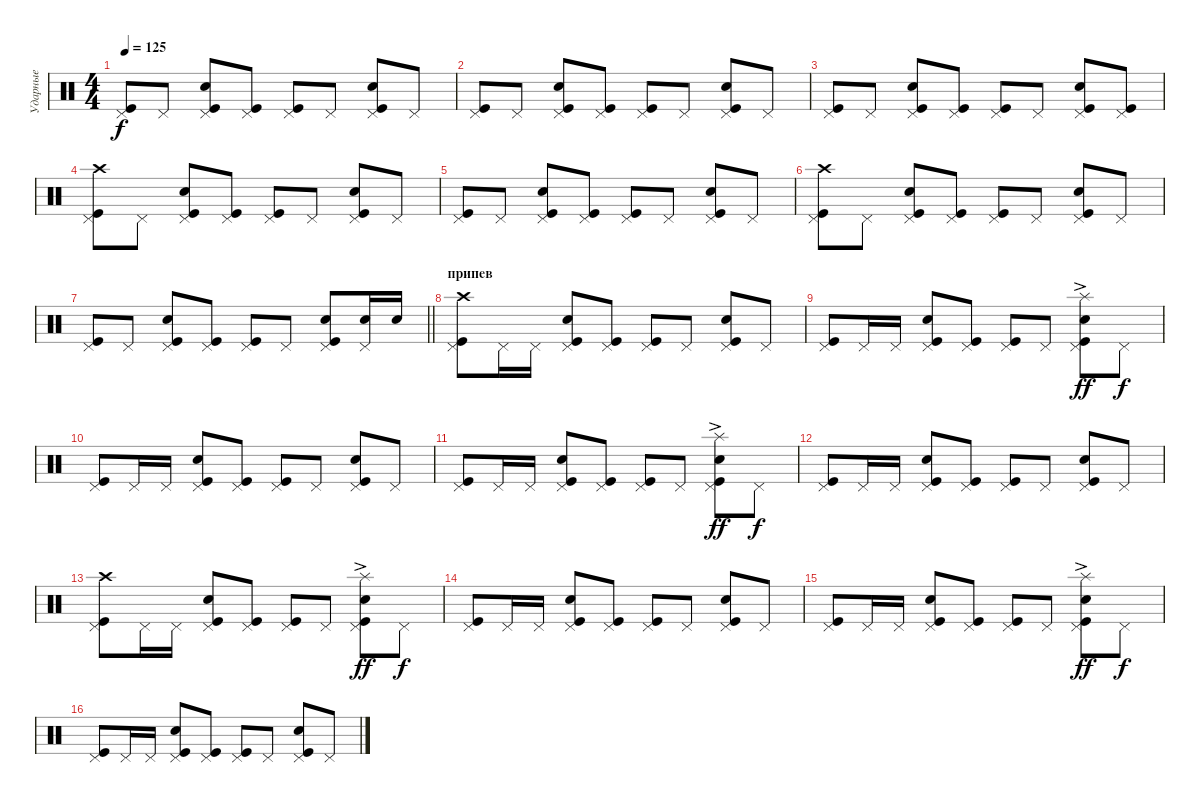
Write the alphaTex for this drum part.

\track ("Ударные" "Ударные") {instrument percussion}
\staff {score}
\articulation defaults
\ts (4 4)
\tempo 125
\clef neutral
\ks c
("Pedal Hi-Hat (hit)" "Kick (hit)").8{dy f} "Pedal Hi-Hat (hit)".8 ("Pedal Hi-Hat (hit)" "Kick (hit)" "Snare (hit) 2").8 ("Pedal Hi-Hat (hit)" "Kick (hit)").8 ("Pedal Hi-Hat (hit)" "Kick (hit)").8 "Pedal Hi-Hat (hit)".8 ("Pedal Hi-Hat (hit)" "Kick (hit)" "Snare (hit) 2").8 "Pedal Hi-Hat (hit)".8 |
("Pedal Hi-Hat (hit)" "Kick (hit)").8 "Pedal Hi-Hat (hit)".8 ("Pedal Hi-Hat (hit)" "Kick (hit)" "Snare (hit) 2").8 ("Pedal Hi-Hat (hit)" "Kick (hit)").8 ("Pedal Hi-Hat (hit)" "Kick (hit)").8 "Pedal Hi-Hat (hit)".8 ("Pedal Hi-Hat (hit)" "Kick (hit)" "Snare (hit) 2").8 "Pedal Hi-Hat (hit)".8 |
("Pedal Hi-Hat (hit)" "Kick (hit)").8 "Pedal Hi-Hat (hit)".8 ("Pedal Hi-Hat (hit)" "Kick (hit)" "Snare (hit) 2").8 ("Pedal Hi-Hat (hit)" "Kick (hit)").8 ("Pedal Hi-Hat (hit)" "Kick (hit)").8 "Pedal Hi-Hat (hit)".8 ("Pedal Hi-Hat (hit)" "Kick (hit)" "Snare (hit) 2").8 ("Pedal Hi-Hat (hit)" "Kick (hit)").8 |
("Pedal Hi-Hat (hit)" "Kick (hit)" "Crash high (hit)").8 "Pedal Hi-Hat (hit)".8 ("Pedal Hi-Hat (hit)" "Kick (hit)" "Snare (hit) 2").8 ("Pedal Hi-Hat (hit)" "Kick (hit)").8 ("Pedal Hi-Hat (hit)" "Kick (hit)").8 "Pedal Hi-Hat (hit)".8 ("Pedal Hi-Hat (hit)" "Kick (hit)" "Snare (hit) 2").8 "Pedal Hi-Hat (hit)".8 |
("Pedal Hi-Hat (hit)" "Kick (hit)").8 "Pedal Hi-Hat (hit)".8 ("Pedal Hi-Hat (hit)" "Kick (hit)" "Snare (hit) 2").8 ("Pedal Hi-Hat (hit)" "Kick (hit)").8 ("Pedal Hi-Hat (hit)" "Kick (hit)").8 "Pedal Hi-Hat (hit)".8 ("Pedal Hi-Hat (hit)" "Kick (hit)" "Snare (hit) 2").8 "Pedal Hi-Hat (hit)".8 |
("Pedal Hi-Hat (hit)" "Kick (hit)" "Crash high (hit)").8 "Pedal Hi-Hat (hit)".8 ("Pedal Hi-Hat (hit)" "Kick (hit)" "Snare (hit) 2").8 ("Pedal Hi-Hat (hit)" "Kick (hit)").8 ("Pedal Hi-Hat (hit)" "Kick (hit)").8 "Pedal Hi-Hat (hit)".8 ("Pedal Hi-Hat (hit)" "Kick (hit)" "Snare (hit) 2").8 "Pedal Hi-Hat (hit)".8 |
\barLineRight lightlight
("Pedal Hi-Hat (hit)" "Kick (hit)").8 "Pedal Hi-Hat (hit)".8 ("Pedal Hi-Hat (hit)" "Kick (hit)" "Snare (hit) 2").8 ("Pedal Hi-Hat (hit)" "Kick (hit)").8 ("Pedal Hi-Hat (hit)" "Kick (hit)").8 "Pedal Hi-Hat (hit)".8 ("Pedal Hi-Hat (hit)" "Kick (hit)" "Snare (hit) 2").8 ("Pedal Hi-Hat (hit)" "Snare (hit) 2").16 "Snare (hit) 2".16 |
\section ("" "припев")
("Pedal Hi-Hat (hit)" "Kick (hit)" "Crash high (hit)").8 "Pedal Hi-Hat (hit)".16 "Pedal Hi-Hat (hit)".16 ("Pedal Hi-Hat (hit)" "Kick (hit)" "Snare (hit) 2").8 ("Pedal Hi-Hat (hit)" "Kick (hit)").8 ("Pedal Hi-Hat (hit)" "Kick (hit)").8 "Pedal Hi-Hat (hit)".8 ("Pedal Hi-Hat (hit)" "Kick (hit)" "Snare (hit) 2").8 "Pedal Hi-Hat (hit)".8 |
("Pedal Hi-Hat (hit)" "Kick (hit)").8 "Pedal Hi-Hat (hit)".16 "Pedal Hi-Hat (hit)".16 ("Pedal Hi-Hat (hit)" "Kick (hit)" "Snare (hit) 2").8 ("Pedal Hi-Hat (hit)" "Kick (hit)").8 ("Pedal Hi-Hat (hit)" "Kick (hit)").8 "Pedal Hi-Hat (hit)".8 ("Pedal Hi-Hat (hit)" "Kick (hit)" "Snare (hit) 2" "Splash (hit)"{ac}).8{dy ff} "Pedal Hi-Hat (hit)".8{dy f} |
("Pedal Hi-Hat (hit)" "Kick (hit)").8 "Pedal Hi-Hat (hit)".16 "Pedal Hi-Hat (hit)".16 ("Pedal Hi-Hat (hit)" "Kick (hit)" "Snare (hit) 2").8 ("Pedal Hi-Hat (hit)" "Kick (hit)").8 ("Pedal Hi-Hat (hit)" "Kick (hit)").8 "Pedal Hi-Hat (hit)".8 ("Pedal Hi-Hat (hit)" "Kick (hit)" "Snare (hit) 2").8 "Pedal Hi-Hat (hit)".8 |
("Pedal Hi-Hat (hit)" "Kick (hit)").8 "Pedal Hi-Hat (hit)".16 "Pedal Hi-Hat (hit)".16 ("Pedal Hi-Hat (hit)" "Kick (hit)" "Snare (hit) 2").8 ("Pedal Hi-Hat (hit)" "Kick (hit)").8 ("Pedal Hi-Hat (hit)" "Kick (hit)").8 "Pedal Hi-Hat (hit)".8 ("Pedal Hi-Hat (hit)" "Kick (hit)" "Snare (hit) 2" "Splash (hit)"{ac}).8{dy ff} "Pedal Hi-Hat (hit)".8{dy f} |
("Pedal Hi-Hat (hit)" "Kick (hit)").8 "Pedal Hi-Hat (hit)".16 "Pedal Hi-Hat (hit)".16 ("Pedal Hi-Hat (hit)" "Kick (hit)" "Snare (hit) 2").8 ("Pedal Hi-Hat (hit)" "Kick (hit)").8 ("Pedal Hi-Hat (hit)" "Kick (hit)").8 "Pedal Hi-Hat (hit)".8 ("Pedal Hi-Hat (hit)" "Kick (hit)" "Snare (hit) 2").8 "Pedal Hi-Hat (hit)".8 |
("Pedal Hi-Hat (hit)" "Kick (hit)" "Crash high (hit)").8 "Pedal Hi-Hat (hit)".16 "Pedal Hi-Hat (hit)".16 ("Pedal Hi-Hat (hit)" "Kick (hit)" "Snare (hit) 2").8 ("Pedal Hi-Hat (hit)" "Kick (hit)").8 ("Pedal Hi-Hat (hit)" "Kick (hit)").8 "Pedal Hi-Hat (hit)".8 ("Pedal Hi-Hat (hit)" "Kick (hit)" "Snare (hit) 2" "Splash (hit)"{ac}).8{dy ff} "Pedal Hi-Hat (hit)".8{dy f} |
("Pedal Hi-Hat (hit)" "Kick (hit)").8 "Pedal Hi-Hat (hit)".16 "Pedal Hi-Hat (hit)".16 ("Pedal Hi-Hat (hit)" "Kick (hit)" "Snare (hit) 2").8 ("Pedal Hi-Hat (hit)" "Kick (hit)").8 ("Pedal Hi-Hat (hit)" "Kick (hit)").8 "Pedal Hi-Hat (hit)".8 ("Pedal Hi-Hat (hit)" "Kick (hit)" "Snare (hit) 2").8 "Pedal Hi-Hat (hit)".8 |
("Pedal Hi-Hat (hit)" "Kick (hit)").8 "Pedal Hi-Hat (hit)".16 "Pedal Hi-Hat (hit)".16 ("Pedal Hi-Hat (hit)" "Kick (hit)" "Snare (hit) 2").8 ("Pedal Hi-Hat (hit)" "Kick (hit)").8 ("Pedal Hi-Hat (hit)" "Kick (hit)").8 "Pedal Hi-Hat (hit)".8 ("Pedal Hi-Hat (hit)" "Kick (hit)" "Snare (hit) 2" "Splash (hit)"{ac}).8{dy ff} "Pedal Hi-Hat (hit)".8{dy f} |
("Pedal Hi-Hat (hit)" "Kick (hit)").8 "Pedal Hi-Hat (hit)".16 "Pedal Hi-Hat (hit)".16 ("Pedal Hi-Hat (hit)" "Kick (hit)" "Snare (hit) 2").8 ("Pedal Hi-Hat (hit)" "Kick (hit)").8 ("Pedal Hi-Hat (hit)" "Kick (hit)").8 "Pedal Hi-Hat (hit)".8 ("Pedal Hi-Hat (hit)" "Kick (hit)" "Snare (hit) 2").8 "Pedal Hi-Hat (hit)".8
